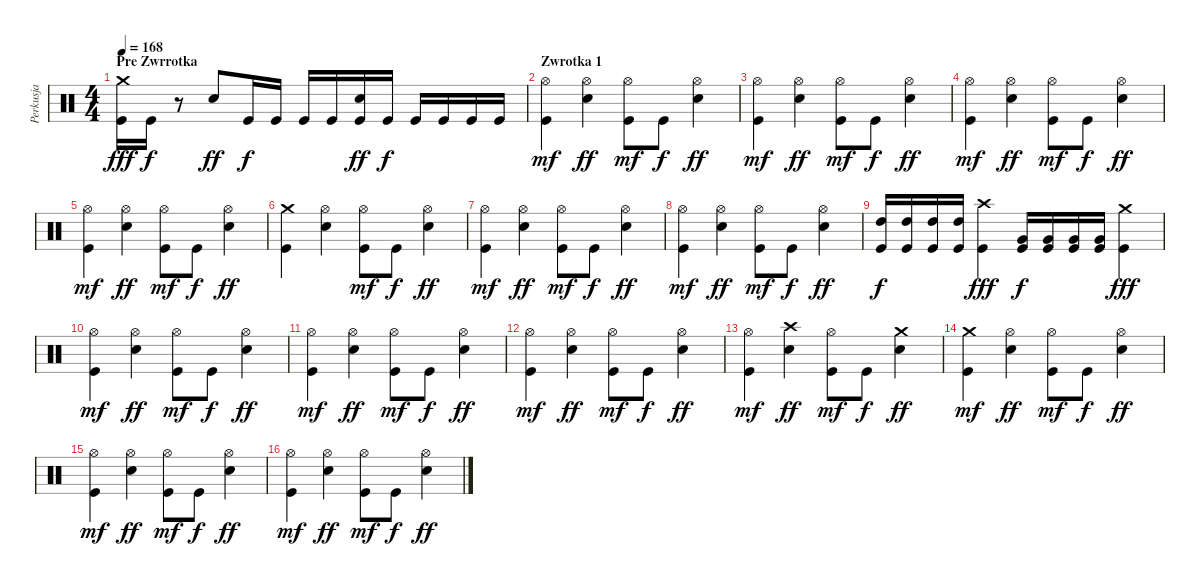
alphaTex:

\track ("Perkusja" "Perkusja") {instrument percussion}
\staff {score}
\articulation defaults
\ts (4 4)
\section ("" "Pre Zwrrotka")
\tempo 168
\clef neutral
\ks c
("Crash medium (hit)" "Kick (hit)").16{dy fff} "Kick (hit)".16{dy f} r.8 "Snare (hit) 2".8{dy ff} "Kick (hit)".16{dy f} "Kick (hit)".16 "Kick (hit)".16 "Kick (hit)".16 ("Snare (hit) 2" "Kick (hit)").16{dy ff} "Kick (hit)".16{dy f} "Kick (hit)".16 "Kick (hit)".16 "Kick (hit)".16 "Kick (hit)".16 |
\section ("" "Zwrotka 1")
("Hi-Hat (open)" "Kick (hit)").4{dy mf} ("Hi-Hat (open)" "Snare (hit) 2").4{dy ff} ("Hi-Hat (open)" "Kick (hit)").8{dy mf} "Kick (hit)".8{dy f} ("Hi-Hat (open)" "Snare (hit) 2").4{dy ff} |
("Hi-Hat (open)" "Kick (hit)").4{dy mf} ("Hi-Hat (open)" "Snare (hit) 2").4{dy ff} ("Hi-Hat (open)" "Kick (hit)").8{dy mf} "Kick (hit)".8{dy f} ("Hi-Hat (open)" "Snare (hit) 2").4{dy ff} |
("Hi-Hat (open)" "Kick (hit)").4{dy mf} ("Hi-Hat (open)" "Snare (hit) 2").4{dy ff} ("Hi-Hat (open)" "Kick (hit)").8{dy mf} "Kick (hit)".8{dy f} ("Hi-Hat (open)" "Snare (hit) 2").4{dy ff} |
("Hi-Hat (open)" "Kick (hit)").4{dy mf} ("Hi-Hat (open)" "Snare (hit) 2").4{dy ff} ("Hi-Hat (open)" "Kick (hit)").8{dy mf} "Kick (hit)".8{dy f} ("Hi-Hat (open)" "Snare (hit) 2").4{dy ff} |
("Crash medium (hit)" "Kick (hit)").4 ("Hi-Hat (open)" "Snare (hit) 2").4 ("Hi-Hat (open)" "Kick (hit)").8{dy mf} "Kick (hit)".8{dy f} ("Hi-Hat (open)" "Snare (hit) 2").4{dy ff} |
("Hi-Hat (open)" "Kick (hit)").4{dy mf} ("Hi-Hat (open)" "Snare (hit) 2").4{dy ff} ("Hi-Hat (open)" "Kick (hit)").8{dy mf} "Kick (hit)".8{dy f} ("Hi-Hat (open)" "Snare (hit) 2").4{dy ff} |
("Hi-Hat (open)" "Kick (hit)").4{dy mf} ("Hi-Hat (open)" "Snare (hit) 2").4{dy ff} ("Hi-Hat (open)" "Kick (hit)").8{dy mf} "Kick (hit)".8{dy f} ("Hi-Hat (open)" "Snare (hit) 2").4{dy ff} |
("High Tom (hit)" "Kick (hit)").16{dy f} ("High Tom (hit)" "Kick (hit)").16 ("High Tom (hit)" "Kick (hit)").16 ("High Tom (hit)" "Kick (hit)").16 ("Crash high (hit)" "Kick (hit)").4{dy fff} ("Very Low Tom (hit)" "Kick (hit)").16{dy f} ("Very Low Tom (hit)" "Kick (hit)").16 ("Very Low Tom (hit)" "Kick (hit)").16 ("Very Low Tom (hit)" "Kick (hit)").16 ("Crash medium (hit)" "Kick (hit)").4{dy fff} |
("Hi-Hat (open)" "Kick (hit)").4{dy mf} ("Hi-Hat (open)" "Snare (hit) 2").4{dy ff} ("Hi-Hat (open)" "Kick (hit)").8{dy mf} "Kick (hit)".8{dy f} ("Hi-Hat (open)" "Snare (hit) 2").4{dy ff} |
("Hi-Hat (open)" "Kick (hit)").4{dy mf} ("Hi-Hat (open)" "Snare (hit) 2").4{dy ff} ("Hi-Hat (open)" "Kick (hit)").8{dy mf} "Kick (hit)".8{dy f} ("Hi-Hat (open)" "Snare (hit) 2").4{dy ff} |
("Hi-Hat (open)" "Kick (hit)").4{dy mf} ("Hi-Hat (open)" "Snare (hit) 2").4{dy ff} ("Hi-Hat (open)" "Kick (hit)").8{dy mf} "Kick (hit)".8{dy f} ("Hi-Hat (open)" "Snare (hit) 2").4{dy ff} |
("Hi-Hat (open)" "Kick (hit)").4{dy mf} ("Crash high (hit)" "Snare (hit) 2").4{dy ff} ("Hi-Hat (open)" "Kick (hit)").8{dy mf} "Kick (hit)".8{dy f} ("Crash medium (hit)" "Snare (hit) 2").4{dy ff} |
("Crash medium (hit)" "Kick (hit)").4{dy mf} ("Hi-Hat (open)" "Snare (hit) 2").4{dy ff} ("Hi-Hat (open)" "Kick (hit)").8{dy mf} "Kick (hit)".8{dy f} ("Hi-Hat (open)" "Snare (hit) 2").4{dy ff} |
("Hi-Hat (open)" "Kick (hit)").4{dy mf} ("Hi-Hat (open)" "Snare (hit) 2").4{dy ff} ("Hi-Hat (open)" "Kick (hit)").8{dy mf} "Kick (hit)".8{dy f} ("Hi-Hat (open)" "Snare (hit) 2").4{dy ff} |
("Hi-Hat (open)" "Kick (hit)").4{dy mf} ("Hi-Hat (open)" "Snare (hit) 2").4{dy ff} ("Hi-Hat (open)" "Kick (hit)").8{dy mf} "Kick (hit)".8{dy f} ("Hi-Hat (open)" "Snare (hit) 2").4{dy ff}
